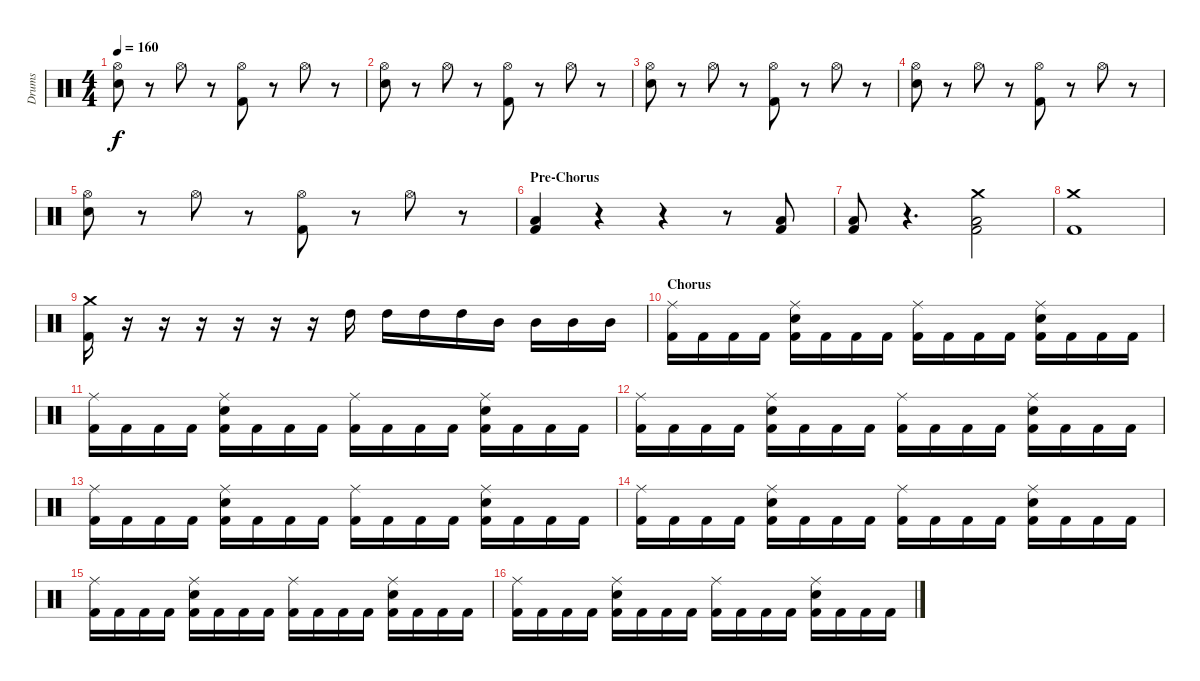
\track ("Drums" "Drums") {instrument percussion}
\staff {score}
\articulation defaults
\ts (4 4)
\tempo 160
\clef neutral
\ks c
("Electric Snare (hit)" "Hi-Hat (open)").8{dy f} r.8 "Hi-Hat (open)".8 r.8 ("Kick (hit) 2" "Hi-Hat (open)").8 r.8 "Hi-Hat (open)".8 r.8 |
("Electric Snare (hit)" "Hi-Hat (open)").8 r.8 "Hi-Hat (open)".8 r.8 ("Kick (hit) 2" "Hi-Hat (open)").8 r.8 "Hi-Hat (open)".8 r.8 |
("Electric Snare (hit)" "Hi-Hat (open)").8 r.8 "Hi-Hat (open)".8 r.8 ("Kick (hit) 2" "Hi-Hat (open)").8 r.8 "Hi-Hat (open)".8 r.8 |
("Electric Snare (hit)" "Hi-Hat (open)").8 r.8 "Hi-Hat (open)".8 r.8 ("Kick (hit) 2" "Hi-Hat (open)").8 r.8 "Hi-Hat (open)".8 r.8 |
("Electric Snare (hit)" "Hi-Hat (open)").8 r.8 "Hi-Hat (open)".8 r.8 ("Kick (hit) 2" "Hi-Hat (open)").8 r.8 "Hi-Hat (open)".8 r.8 |
\section ("" "Pre-Chorus")
("Kick (hit) 2" "Low Tom (hit)").4 r.4 r.4 r.8 ("Kick (hit) 2" "Low Tom (hit)").8 |
("Kick (hit) 2" "Low Tom (hit)").8 r.4{d} ("Kick (hit) 2" "Low Tom (hit)" "Crash medium (hit)").2 |
("Kick (hit) 2" "Crash medium (hit)").1 |
("Kick (hit) 2" "Crash medium (hit)").16 r.16 r.16 r.16 r.16 r.16 r.16 "High Tom (hit)".16 "High Tom (hit)".16 "High Tom (hit)".16 "High Tom (hit)".16 "Mid Tom (hit)".16 "Mid Tom (hit)".16 "Mid Tom (hit)".16 "Mid Tom (hit)".16 |
\section ("" "Chorus")
("Kick (hit) 2" "Ride (middle)").16 "Kick (hit) 2".16 "Kick (hit) 2".16 "Kick (hit) 2".16 ("Kick (hit) 2" "Electric Snare (hit)" "Ride (middle)").16 "Kick (hit) 2".16 "Kick (hit) 2".16 "Kick (hit) 2".16 ("Kick (hit) 2" "Ride (middle)").16 "Kick (hit) 2".16 "Kick (hit) 2".16 "Kick (hit) 2".16 ("Kick (hit) 2" "Electric Snare (hit)" "Ride (middle)").16 "Kick (hit) 2".16 "Kick (hit) 2".16 "Kick (hit) 2".16 |
("Kick (hit) 2" "Ride (middle)").16 "Kick (hit) 2".16 "Kick (hit) 2".16 "Kick (hit) 2".16 ("Kick (hit) 2" "Electric Snare (hit)" "Ride (middle)").16 "Kick (hit) 2".16 "Kick (hit) 2".16 "Kick (hit) 2".16 ("Kick (hit) 2" "Ride (middle)").16 "Kick (hit) 2".16 "Kick (hit) 2".16 "Kick (hit) 2".16 ("Kick (hit) 2" "Electric Snare (hit)" "Ride (middle)").16 "Kick (hit) 2".16 "Kick (hit) 2".16 "Kick (hit) 2".16 |
("Kick (hit) 2" "Ride (middle)").16 "Kick (hit) 2".16 "Kick (hit) 2".16 "Kick (hit) 2".16 ("Kick (hit) 2" "Electric Snare (hit)" "Ride (middle)").16 "Kick (hit) 2".16 "Kick (hit) 2".16 "Kick (hit) 2".16 ("Kick (hit) 2" "Ride (middle)").16 "Kick (hit) 2".16 "Kick (hit) 2".16 "Kick (hit) 2".16 ("Kick (hit) 2" "Electric Snare (hit)" "Ride (middle)").16 "Kick (hit) 2".16 "Kick (hit) 2".16 "Kick (hit) 2".16 |
("Kick (hit) 2" "Ride (middle)").16 "Kick (hit) 2".16 "Kick (hit) 2".16 "Kick (hit) 2".16 ("Kick (hit) 2" "Electric Snare (hit)" "Ride (middle)").16 "Kick (hit) 2".16 "Kick (hit) 2".16 "Kick (hit) 2".16 ("Kick (hit) 2" "Ride (middle)").16 "Kick (hit) 2".16 "Kick (hit) 2".16 "Kick (hit) 2".16 ("Kick (hit) 2" "Electric Snare (hit)" "Ride (middle)").16 "Kick (hit) 2".16 "Kick (hit) 2".16 "Kick (hit) 2".16 |
("Kick (hit) 2" "Ride (middle)").16 "Kick (hit) 2".16 "Kick (hit) 2".16 "Kick (hit) 2".16 ("Kick (hit) 2" "Electric Snare (hit)" "Ride (middle)").16 "Kick (hit) 2".16 "Kick (hit) 2".16 "Kick (hit) 2".16 ("Kick (hit) 2" "Ride (middle)").16 "Kick (hit) 2".16 "Kick (hit) 2".16 "Kick (hit) 2".16 ("Kick (hit) 2" "Electric Snare (hit)" "Ride (middle)").16 "Kick (hit) 2".16 "Kick (hit) 2".16 "Kick (hit) 2".16 |
("Kick (hit) 2" "Ride (middle)").16 "Kick (hit) 2".16 "Kick (hit) 2".16 "Kick (hit) 2".16 ("Kick (hit) 2" "Electric Snare (hit)" "Ride (middle)").16 "Kick (hit) 2".16 "Kick (hit) 2".16 "Kick (hit) 2".16 ("Kick (hit) 2" "Ride (middle)").16 "Kick (hit) 2".16 "Kick (hit) 2".16 "Kick (hit) 2".16 ("Kick (hit) 2" "Electric Snare (hit)" "Ride (middle)").16 "Kick (hit) 2".16 "Kick (hit) 2".16 "Kick (hit) 2".16 |
("Kick (hit) 2" "Ride (middle)").16 "Kick (hit) 2".16 "Kick (hit) 2".16 "Kick (hit) 2".16 ("Kick (hit) 2" "Electric Snare (hit)" "Ride (middle)").16 "Kick (hit) 2".16 "Kick (hit) 2".16 "Kick (hit) 2".16 ("Kick (hit) 2" "Ride (middle)").16 "Kick (hit) 2".16 "Kick (hit) 2".16 "Kick (hit) 2".16 ("Kick (hit) 2" "Electric Snare (hit)" "Ride (middle)").16 "Kick (hit) 2".16 "Kick (hit) 2".16 "Kick (hit) 2".16
